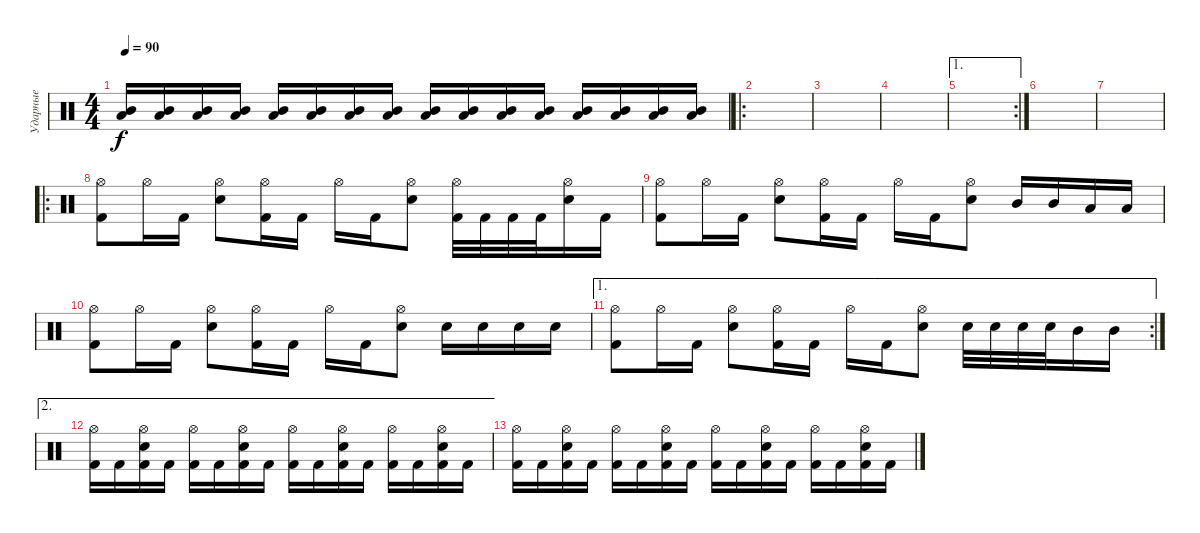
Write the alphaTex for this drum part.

\track ("Ударные" "Ударные") {instrument percussion}
\staff {score}
\articulation defaults
\ts (4 4)
\tempo 90
\clef neutral
\ks c
("Mid Tom (hit)" "Low Tom (hit)").16{dy f} ("Mid Tom (hit)" "Low Tom (hit)").16 ("Mid Tom (hit)" "Low Tom (hit)").16 ("Mid Tom (hit)" "Low Tom (hit)").16 ("Mid Tom (hit)" "Low Tom (hit)").16 ("Mid Tom (hit)" "Low Tom (hit)").16 ("Mid Tom (hit)" "Low Tom (hit)").16 ("Mid Tom (hit)" "Low Tom (hit)").16 ("Mid Tom (hit)" "Low Tom (hit)").16 ("Mid Tom (hit)" "Low Tom (hit)").16 ("Mid Tom (hit)" "Low Tom (hit)").16 ("Mid Tom (hit)" "Low Tom (hit)").16 ("Mid Tom (hit)" "Low Tom (hit)").16 ("Mid Tom (hit)" "Low Tom (hit)").16 ("Mid Tom (hit)" "Low Tom (hit)").16 ("Mid Tom (hit)" "Low Tom (hit)").16 |
\ro
|
|
|
\ae 1
\rc 2
|
|
|
\ro
("Kick (hit) 2" "Hi-Hat (open)").8 "Hi-Hat (open)".16 "Kick (hit) 2".16 ("Electric Snare (hit)" "Hi-Hat (open)").8 ("Hi-Hat (open)" "Kick (hit) 2").16 "Kick (hit) 2".16 "Hi-Hat (open)".16 "Kick (hit) 2".16 ("Hi-Hat (open)" "Electric Snare (hit)").8 ("Kick (hit) 2" "Hi-Hat (open)").32 "Kick (hit) 2".32 "Kick (hit) 2".32 "Kick (hit) 2".32 ("Electric Snare (hit)" "Hi-Hat (open)").16 "Kick (hit) 2".16 |
("Kick (hit) 2" "Hi-Hat (open)").8 "Hi-Hat (open)".16 "Kick (hit) 2".16 ("Electric Snare (hit)" "Hi-Hat (open)").8 ("Hi-Hat (open)" "Kick (hit) 2").16 "Kick (hit) 2".16 "Hi-Hat (open)".16 "Kick (hit) 2".16 ("Hi-Hat (open)" "Electric Snare (hit)").8 "Mid Tom (hit)".16 "Mid Tom (hit)".16 "Low Tom (hit)".16 "Low Tom (hit)".16 |
("Kick (hit) 2" "Hi-Hat (open)").8 "Hi-Hat (open)".16 "Kick (hit) 2".16 ("Electric Snare (hit)" "Hi-Hat (open)").8 ("Hi-Hat (open)" "Kick (hit) 2").16 "Kick (hit) 2".16 "Hi-Hat (open)".16 "Kick (hit) 2".16 ("Hi-Hat (open)" "Electric Snare (hit)").8 "Electric Snare (hit)".16 "Electric Snare (hit)".16 "Electric Snare (hit)".16 "Electric Snare (hit)".16 |
\ae 1
\rc 2
("Kick (hit) 2" "Hi-Hat (open)").8 "Hi-Hat (open)".16 "Kick (hit) 2".16 ("Electric Snare (hit)" "Hi-Hat (open)").8 ("Hi-Hat (open)" "Kick (hit) 2").16 "Kick (hit) 2".16 "Hi-Hat (open)".16 "Kick (hit) 2".16 ("Hi-Hat (open)" "Electric Snare (hit)").8 "Electric Snare (hit)".32 "Electric Snare (hit)".32 "Electric Snare (hit)".32 "Electric Snare (hit)".32 "Mid Tom (hit)".16 "Mid Tom (hit)".16 |
\ae 2
("Kick (hit) 2" "Hi-Hat (open)").16 "Kick (hit) 2".16 ("Kick (hit) 2" "Hi-Hat (open)" "Electric Snare (hit)").16 "Kick (hit) 2".16 ("Kick (hit) 2" "Hi-Hat (open)").16 "Kick (hit) 2".16 ("Kick (hit) 2" "Hi-Hat (open)" "Electric Snare (hit)").16 "Kick (hit) 2".16 ("Kick (hit) 2" "Hi-Hat (open)").16 "Kick (hit) 2".16 ("Kick (hit) 2" "Hi-Hat (open)" "Electric Snare (hit)").16 "Kick (hit) 2".16 ("Kick (hit) 2" "Hi-Hat (open)").16 "Kick (hit) 2".16 ("Kick (hit) 2" "Hi-Hat (open)" "Electric Snare (hit)").16 "Kick (hit) 2".16 |
("Kick (hit) 2" "Hi-Hat (open)").16 "Kick (hit) 2".16 ("Kick (hit) 2" "Hi-Hat (open)" "Electric Snare (hit)").16 "Kick (hit) 2".16 ("Kick (hit) 2" "Hi-Hat (open)").16 "Kick (hit) 2".16 ("Kick (hit) 2" "Hi-Hat (open)" "Electric Snare (hit)").16 "Kick (hit) 2".16 ("Kick (hit) 2" "Hi-Hat (open)").16 "Kick (hit) 2".16 ("Kick (hit) 2" "Hi-Hat (open)" "Electric Snare (hit)").16 "Kick (hit) 2".16 ("Kick (hit) 2" "Hi-Hat (open)").16 "Kick (hit) 2".16 ("Kick (hit) 2" "Hi-Hat (open)" "Electric Snare (hit)").16 "Kick (hit) 2".16
